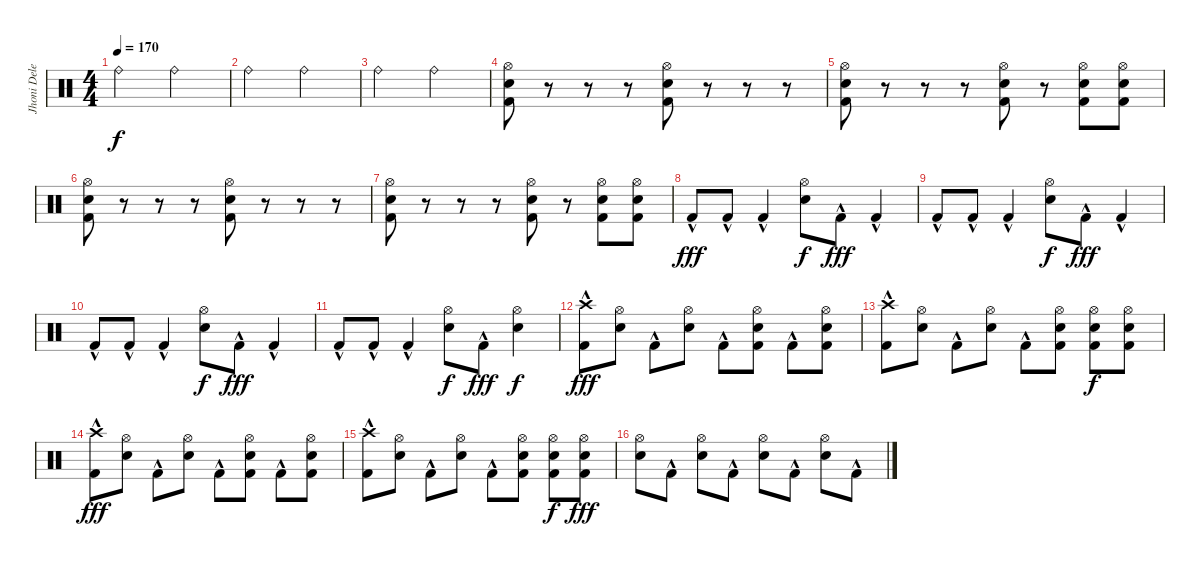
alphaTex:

\track ("Jhoni Delenger" "Jhoni Dele") {instrument percussion}
\staff {score}
\articulation defaults
\ts (4 4)
\tempo 170
\clef neutral
\ks c "Ride (bell)".2{dy f} "Ride (bell)".2
|
"Ride (bell)".2 "Ride (bell)".2 |
"Ride (bell)".2 "Ride (bell)".2 |
("Hi-Hat (open)" "Snare (hit) 2" "Kick (hit) 2").8 r.8 r.8 r.8 ("Hi-Hat (open)" "Snare (hit) 2" "Kick (hit) 2").8 r.8 r.8 r.8 |
("Hi-Hat (open)" "Snare (hit) 2" "Kick (hit) 2").8 r.8 r.8 r.8 ("Hi-Hat (open)" "Snare (hit) 2" "Kick (hit) 2").8 r.8 ("Hi-Hat (open)" "Snare (hit) 2" "Kick (hit) 2").8 ("Hi-Hat (open)" "Snare (hit) 2" "Kick (hit) 2").8 |
("Hi-Hat (open)" "Snare (hit) 2" "Kick (hit) 2").8 r.8 r.8 r.8 ("Hi-Hat (open)" "Snare (hit) 2" "Kick (hit) 2").8 r.8 r.8 r.8 |
("Hi-Hat (open)" "Snare (hit) 2" "Kick (hit) 2").8 r.8 r.8 r.8 ("Hi-Hat (open)" "Snare (hit) 2" "Kick (hit) 2").8 r.8 ("Hi-Hat (open)" "Snare (hit) 2" "Kick (hit) 2").8 ("Hi-Hat (open)" "Snare (hit) 2" "Kick (hit) 2").8 |
"Kick (hit) 2"{hac}.8{dy fff} "Kick (hit) 2"{hac}.8 "Kick (hit) 2"{hac}.4 ("Hi-Hat (open)" "Snare (hit) 2").8{dy f} "Kick (hit) 2"{hac}.8{dy fff} "Kick (hit) 2"{hac}.4 |
"Kick (hit) 2"{hac}.8 "Kick (hit) 2"{hac}.8 "Kick (hit) 2"{hac}.4 ("Hi-Hat (open)" "Snare (hit) 2").8{dy f} "Kick (hit) 2"{hac}.8{dy fff} "Kick (hit) 2"{hac}.4 |
"Kick (hit) 2"{hac}.8 "Kick (hit) 2"{hac}.8 "Kick (hit) 2"{hac}.4 ("Hi-Hat (open)" "Snare (hit) 2").8{dy f} "Kick (hit) 2"{hac}.8{dy fff} "Kick (hit) 2"{hac}.4 |
"Kick (hit) 2"{hac}.8 "Kick (hit) 2"{hac}.8 "Kick (hit) 2"{hac}.4 ("Hi-Hat (open)" "Snare (hit) 2").8{dy f} "Kick (hit) 2"{hac}.8{dy fff} ("Hi-Hat (open)" "Snare (hit) 2").4{dy f} |
("Kick (hit) 2"{hac} "Crash high (hit)").8{dy fff} ("Snare (hit) 2" "Hi-Hat (open)").8 "Kick (hit) 2"{hac}.8 ("Snare (hit) 2" "Hi-Hat (open)").8 "Kick (hit) 2"{hac}.8 ("Snare (hit) 2" "Hi-Hat (open)" "Kick (hit) 2").8 "Kick (hit) 2"{hac}.8 ("Snare (hit) 2" "Hi-Hat (open)" "Kick (hit) 2").8 |
("Kick (hit) 2"{hac} "Crash high (hit)").8 ("Snare (hit) 2" "Hi-Hat (open)").8 "Kick (hit) 2"{hac}.8 ("Snare (hit) 2" "Hi-Hat (open)").8 "Kick (hit) 2"{hac}.8 ("Snare (hit) 2" "Hi-Hat (open)" "Kick (hit) 2").8 ("Hi-Hat (open)" "Snare (hit) 2" "Kick (hit) 2").8{dy f} ("Hi-Hat (open)" "Snare (hit) 2" "Kick (hit) 2").8 |
("Kick (hit) 2"{hac} "Crash high (hit)").8{dy fff} ("Snare (hit) 2" "Hi-Hat (open)").8 "Kick (hit) 2"{hac}.8 ("Snare (hit) 2" "Hi-Hat (open)").8 "Kick (hit) 2"{hac}.8 ("Snare (hit) 2" "Hi-Hat (open)" "Kick (hit) 2").8 "Kick (hit) 2"{hac}.8 ("Snare (hit) 2" "Hi-Hat (open)" "Kick (hit) 2").8 |
("Kick (hit) 2"{hac} "Crash high (hit)").8 ("Snare (hit) 2" "Hi-Hat (open)").8 "Kick (hit) 2"{hac}.8 ("Snare (hit) 2" "Hi-Hat (open)").8 "Kick (hit) 2"{hac}.8 ("Snare (hit) 2" "Hi-Hat (open)" "Kick (hit) 2").8 ("Hi-Hat (open)" "Snare (hit) 2" "Kick (hit) 2").8{dy f} ("Snare (hit) 2" "Hi-Hat (open)" "Kick (hit) 2").8{dy fff} |
("Snare (hit) 2" "Hi-Hat (open)").8 "Kick (hit) 2"{hac}.8 ("Snare (hit) 2" "Hi-Hat (open)").8 "Kick (hit) 2"{hac}.8 ("Snare (hit) 2" "Hi-Hat (open)").8 "Kick (hit) 2"{hac}.8 ("Snare (hit) 2" "Hi-Hat (open)").8 "Kick (hit) 2"{hac}.8
